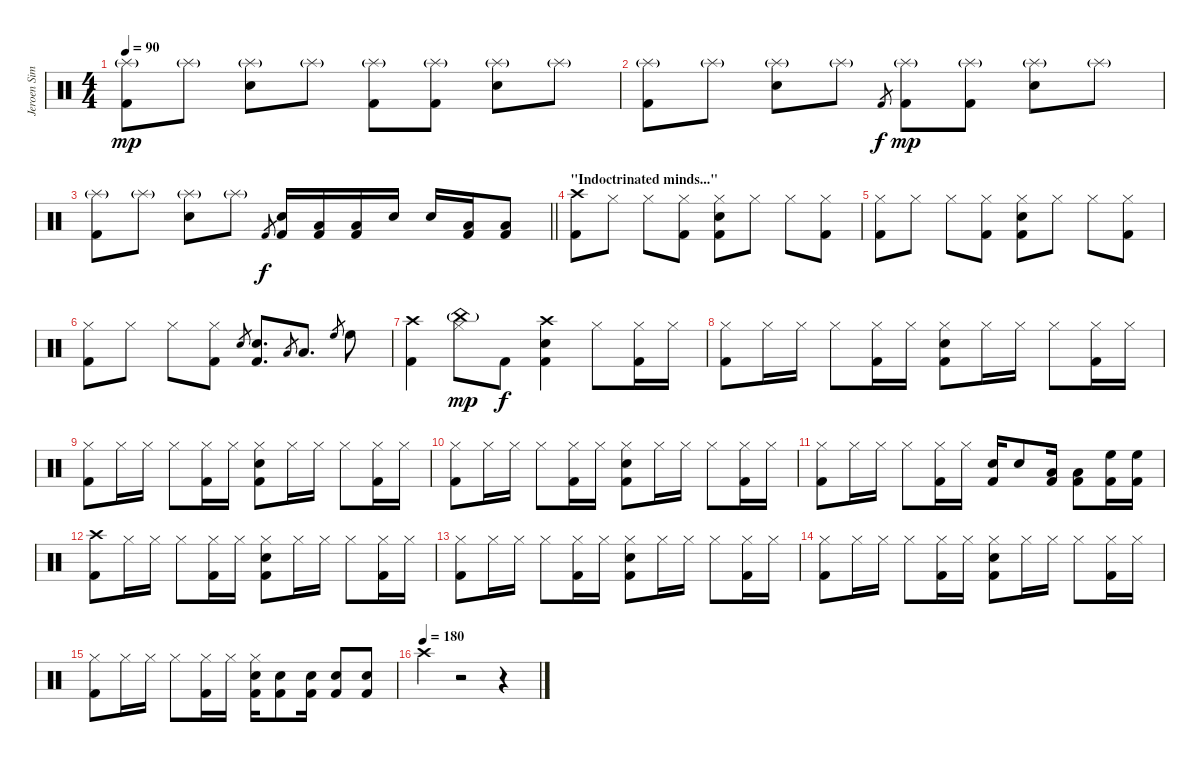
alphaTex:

\track ("Jeroen Simons" "Jeroen Sim") {instrument percussion}
\staff {score}
\articulation defaults
\ts (4 4)
\tempo 90
\clef neutral
\ks c
("Kick (hit) 2" "Splash (hit)"{g}).8{dy mp} "Splash (hit)"{g}.8 ("Snare (hit) 2" "Splash (hit)"{g}).8 "Splash (hit)"{g}.8 ("Kick (hit) 2" "Splash (hit)"{g}).8 ("Kick (hit) 2" "Splash (hit)"{g}).8 ("Snare (hit) 2" "Splash (hit)"{g}).8 "Splash (hit)"{g}.8 |
("Kick (hit) 2" "Splash (hit)"{g}).8 "Splash (hit)"{g}.8 ("Snare (hit) 2" "Splash (hit)"{g}).8 "Splash (hit)"{g}.8 "Kick (hit) 2".8{gr dy f} ("Kick (hit) 2" "Splash (hit)"{g}).8{dy mp} ("Kick (hit) 2" "Splash (hit)"{g}).8 ("Snare (hit) 2" "Splash (hit)"{g}).8 "Splash (hit)"{g}.8 |
\barLineRight lightlight
("Kick (hit) 2" "Splash (hit)"{g}).8 "Splash (hit)"{g}.8 ("Snare (hit) 2" "Splash (hit)"{g}).8 "Splash (hit)"{g}.8 "Kick (hit) 2".8{gr dy f} ("Kick (hit) 2" "Snare (hit) 2").16 ("Kick (hit) 2" "Low Tom (hit)").16 ("Kick (hit) 2" "Low Tom (hit)").16 "Snare (hit) 2".16 "Snare (hit) 2".16 ("Kick (hit) 2" "Low Tom (hit)").16 ("Kick (hit) 2" "Low Tom (hit)").8 |
\section ("" "\"Indoctrinated minds...\"")
("Kick (hit) 2" "Crash high (hit)").8 "Hi-Hat (closed)".8 "Hi-Hat (closed)".8 ("Kick (hit) 2" "Hi-Hat (closed)").8 ("Kick (hit) 2" "Snare (hit) 2" "Hi-Hat (closed)").8 "Hi-Hat (closed)".8 "Hi-Hat (closed)".8 ("Kick (hit) 2" "Hi-Hat (closed)").8 |
("Kick (hit) 2" "Hi-Hat (closed)").8 "Hi-Hat (closed)".8 "Hi-Hat (closed)".8 ("Kick (hit) 2" "Hi-Hat (closed)").8 ("Kick (hit) 2" "Snare (hit) 2" "Hi-Hat (closed)").8 "Hi-Hat (closed)".8 "Hi-Hat (closed)".8 ("Kick (hit) 2" "Hi-Hat (closed)").8 |
("Kick (hit) 2" "Hi-Hat (closed)").8 "Hi-Hat (closed)".8 "Hi-Hat (closed)".8 ("Kick (hit) 2" "Hi-Hat (closed)").8 "Snare (hit) 2".8{gr} ("Kick (hit) 2" "Snare (hit) 2").8{d} "Low Tom (hit)".8{gr} "Low Tom (hit)".8{d} "High Floor Tom (hit)".8{gr} "High Floor Tom (hit)".8 |
("Kick (hit) 2" "Crash high (hit)").4 ("Hi-Hat (closed)" "China (hit)"{g}).8{dy mp} "Kick (hit) 2".8{dy f} ("Kick (hit) 2" "Snare (hit) 2" "Crash high (hit)").4 "Hi-Hat (closed)".8 ("Kick (hit) 2" "Hi-Hat (closed)").16 "Hi-Hat (closed)".16 |
("Kick (hit) 2" "Hi-Hat (closed)").8 "Hi-Hat (closed)".16 "Hi-Hat (closed)".16 "Hi-Hat (closed)".8 ("Kick (hit) 2" "Hi-Hat (closed)").16 "Hi-Hat (closed)".16 ("Kick (hit) 2" "Snare (hit) 2" "Hi-Hat (closed)").8 "Hi-Hat (closed)".16 "Hi-Hat (closed)".16 "Hi-Hat (closed)".8 ("Kick (hit) 2" "Hi-Hat (closed)").16 "Hi-Hat (closed)".16 |
("Kick (hit) 2" "Hi-Hat (closed)").8 "Hi-Hat (closed)".16 "Hi-Hat (closed)".16 "Hi-Hat (closed)".8 ("Kick (hit) 2" "Hi-Hat (closed)").16 "Hi-Hat (closed)".16 ("Kick (hit) 2" "Snare (hit) 2" "Hi-Hat (closed)").8 "Hi-Hat (closed)".16 "Hi-Hat (closed)".16 "Hi-Hat (closed)".8 ("Kick (hit) 2" "Hi-Hat (closed)").16 "Hi-Hat (closed)".16 |
("Kick (hit) 2" "Hi-Hat (closed)").8 "Hi-Hat (closed)".16 "Hi-Hat (closed)".16 "Hi-Hat (closed)".8 ("Kick (hit) 2" "Hi-Hat (closed)").16 "Hi-Hat (closed)".16 ("Kick (hit) 2" "Snare (hit) 2" "Hi-Hat (closed)").8 "Hi-Hat (closed)".16 "Hi-Hat (closed)".16 "Hi-Hat (closed)".8 ("Kick (hit) 2" "Hi-Hat (closed)").16 "Hi-Hat (closed)".16 |
("Kick (hit) 2" "Hi-Hat (closed)").8 "Hi-Hat (closed)".16 "Hi-Hat (closed)".16 "Hi-Hat (closed)".8 ("Kick (hit) 2" "Hi-Hat (closed)").16 "Hi-Hat (closed)".16 ("Kick (hit) 2" "Snare (hit) 2").16 "Snare (hit) 2".8 ("Kick (hit) 2" "Low Tom (hit)").16 ("Kick (hit) 2" "Low Tom (hit)").8 ("Kick (hit) 2" "High Floor Tom (hit)").16 ("Kick (hit) 2" "High Floor Tom (hit)").16 |
("Kick (hit) 2" "Crash high (hit)").8 "Hi-Hat (closed)".16 "Hi-Hat (closed)".16 "Hi-Hat (closed)".8 ("Kick (hit) 2" "Hi-Hat (closed)").16 "Hi-Hat (closed)".16 ("Kick (hit) 2" "Snare (hit) 2" "Hi-Hat (closed)").8 "Hi-Hat (closed)".16 "Hi-Hat (closed)".16 "Hi-Hat (closed)".8 ("Kick (hit) 2" "Hi-Hat (closed)").16 "Hi-Hat (closed)".16 |
("Kick (hit) 2" "Hi-Hat (closed)").8 "Hi-Hat (closed)".16 "Hi-Hat (closed)".16 "Hi-Hat (closed)".8 ("Kick (hit) 2" "Hi-Hat (closed)").16 "Hi-Hat (closed)".16 ("Kick (hit) 2" "Snare (hit) 2" "Hi-Hat (closed)").8 "Hi-Hat (closed)".16 "Hi-Hat (closed)".16 "Hi-Hat (closed)".8 ("Kick (hit) 2" "Hi-Hat (closed)").16 "Hi-Hat (closed)".16 |
("Kick (hit) 2" "Hi-Hat (closed)").8 "Hi-Hat (closed)".16 "Hi-Hat (closed)".16 "Hi-Hat (closed)".8 ("Kick (hit) 2" "Hi-Hat (closed)").16 "Hi-Hat (closed)".16 ("Kick (hit) 2" "Snare (hit) 2" "Hi-Hat (closed)").8 "Hi-Hat (closed)".16 "Hi-Hat (closed)".16 "Hi-Hat (closed)".8 ("Kick (hit) 2" "Hi-Hat (closed)").16 "Hi-Hat (closed)".16 |
("Kick (hit) 2" "Hi-Hat (closed)").8 "Hi-Hat (closed)".16 "Hi-Hat (closed)".16 "Hi-Hat (closed)".8 ("Kick (hit) 2" "Hi-Hat (closed)").16 "Hi-Hat (closed)".16 ("Kick (hit) 2" "Snare (hit) 2" "Hi-Hat (closed)").16 ("Kick (hit) 2" "Snare (hit) 2").8 ("Kick (hit) 2" "Snare (hit) 2").16 ("Kick (hit) 2" "Snare (hit) 2").8 ("Kick (hit) 2" "Snare (hit) 2").8 |
\tempo (180)
"Crash high (hit)".4 r.2 r.4
